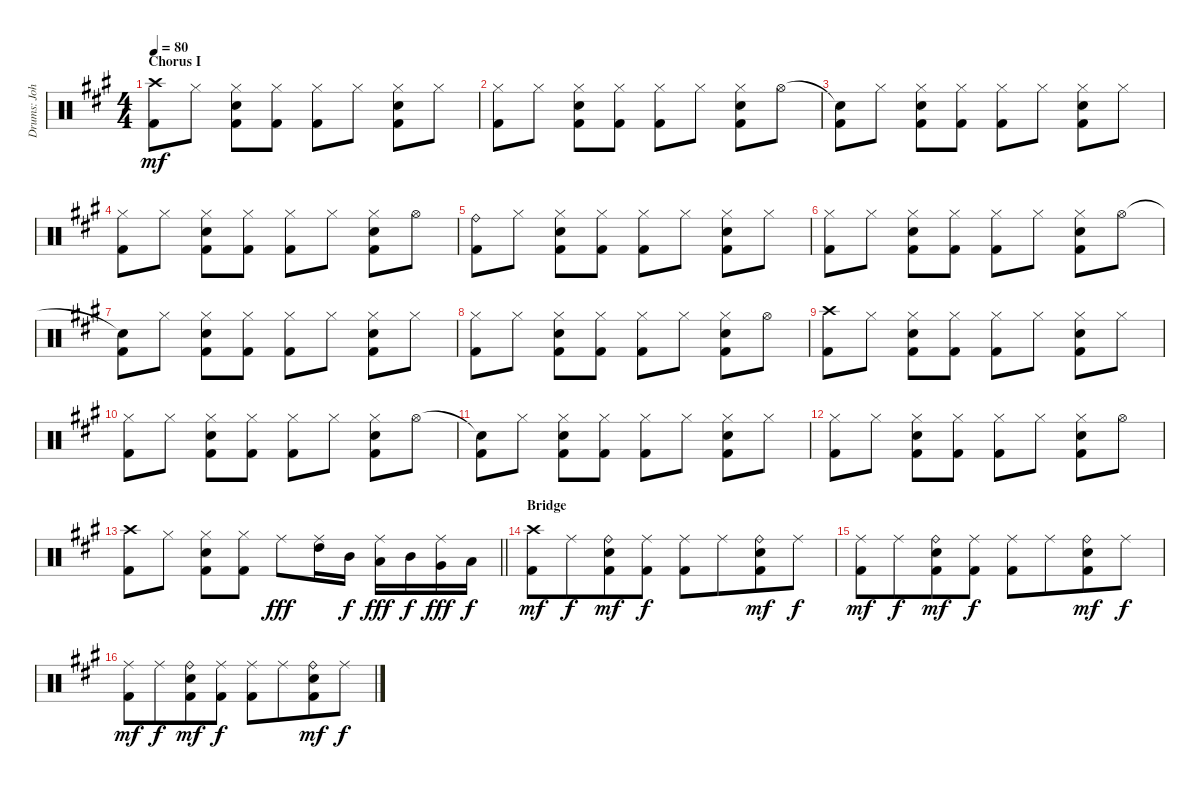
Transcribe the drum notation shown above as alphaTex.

\track ("Drums: John Wilcox" "Drums: Joh") {instrument percussion}
\staff {score}
\articulation defaults
\ts (4 4)
\section ("" "Chorus I")
\tempo 80
\clef neutral
\ks a
("Crash high (hit)" "Kick (hit) 2").8{dy mf} "Hi-Hat (closed)".8 ("Hi-Hat (closed)" "Snare (hit) 2" "Kick (hit) 2").8 ("Hi-Hat (closed)" "Kick (hit) 2").8 ("Hi-Hat (closed)" "Kick (hit) 2").8 "Hi-Hat (closed)".8 ("Hi-Hat (closed)" "Snare (hit) 2" "Kick (hit) 2").8 "Hi-Hat (closed)".8 |
("Hi-Hat (closed)" "Kick (hit) 2").8 "Hi-Hat (closed)".8 ("Hi-Hat (closed)" "Snare (hit) 2" "Kick (hit) 2").8 ("Hi-Hat (closed)" "Kick (hit) 2").8 ("Hi-Hat (closed)" "Kick (hit) 2").8 "Hi-Hat (closed)".8 ("Hi-Hat (closed)" "Snare (hit) 2" "Kick (hit) 2").8 "Hi-Hat (open)".8 |
("Snare (hit)"{t} "Kick (hit) 2").8 "Hi-Hat (closed)".8 ("Hi-Hat (closed)" "Snare (hit) 2" "Kick (hit) 2").8 ("Hi-Hat (closed)" "Kick (hit) 2").8 ("Hi-Hat (closed)" "Kick (hit) 2").8 "Hi-Hat (closed)".8 ("Hi-Hat (closed)" "Snare (hit) 2" "Kick (hit) 2").8 "Hi-Hat (closed)".8 |
("Hi-Hat (closed)" "Kick (hit) 2").8 "Hi-Hat (closed)".8 ("Hi-Hat (closed)" "Snare (hit) 2" "Kick (hit) 2").8 ("Hi-Hat (closed)" "Kick (hit) 2").8 ("Hi-Hat (closed)" "Kick (hit) 2").8 "Hi-Hat (closed)".8 ("Hi-Hat (closed)" "Snare (hit) 2" "Kick (hit) 2").8 "Hi-Hat (open)".8 |
("Ride (bell)" "Kick (hit) 2").8 "Hi-Hat (closed)".8 ("Hi-Hat (closed)" "Snare (hit) 2" "Kick (hit) 2").8 ("Hi-Hat (closed)" "Kick (hit) 2").8 ("Hi-Hat (closed)" "Kick (hit) 2").8 "Hi-Hat (closed)".8 ("Hi-Hat (closed)" "Snare (hit) 2" "Kick (hit) 2").8 "Hi-Hat (closed)".8 |
("Hi-Hat (closed)" "Kick (hit) 2").8 "Hi-Hat (closed)".8 ("Hi-Hat (closed)" "Snare (hit) 2" "Kick (hit) 2").8 ("Hi-Hat (closed)" "Kick (hit) 2").8 ("Hi-Hat (closed)" "Kick (hit) 2").8 "Hi-Hat (closed)".8 ("Hi-Hat (closed)" "Snare (hit) 2" "Kick (hit) 2").8 "Hi-Hat (open)".8 |
("Snare (hit)"{t} "Kick (hit) 2").8 "Hi-Hat (closed)".8 ("Hi-Hat (closed)" "Snare (hit) 2" "Kick (hit) 2").8 ("Hi-Hat (closed)" "Kick (hit) 2").8 ("Hi-Hat (closed)" "Kick (hit) 2").8 "Hi-Hat (closed)".8 ("Hi-Hat (closed)" "Snare (hit) 2" "Kick (hit) 2").8 "Hi-Hat (closed)".8 |
("Hi-Hat (closed)" "Kick (hit) 2").8 "Hi-Hat (closed)".8 ("Hi-Hat (closed)" "Snare (hit) 2" "Kick (hit) 2").8 ("Hi-Hat (closed)" "Kick (hit) 2").8 ("Hi-Hat (closed)" "Kick (hit) 2").8 "Hi-Hat (closed)".8 ("Hi-Hat (closed)" "Snare (hit) 2" "Kick (hit) 2").8 "Hi-Hat (open)".8 |
("Crash high (hit)" "Kick (hit) 2").8 "Hi-Hat (closed)".8 ("Hi-Hat (closed)" "Snare (hit) 2" "Kick (hit) 2").8 ("Hi-Hat (closed)" "Kick (hit) 2").8 ("Hi-Hat (closed)" "Kick (hit) 2").8 "Hi-Hat (closed)".8 ("Hi-Hat (closed)" "Snare (hit) 2" "Kick (hit) 2").8 "Hi-Hat (closed)".8 |
("Hi-Hat (closed)" "Kick (hit) 2").8 "Hi-Hat (closed)".8 ("Hi-Hat (closed)" "Snare (hit) 2" "Kick (hit) 2").8 ("Hi-Hat (closed)" "Kick (hit) 2").8 ("Hi-Hat (closed)" "Kick (hit) 2").8 "Hi-Hat (closed)".8 ("Hi-Hat (closed)" "Snare (hit) 2" "Kick (hit) 2").8 "Hi-Hat (open)".8 |
("Snare (hit)"{t} "Kick (hit) 2").8 "Hi-Hat (closed)".8 ("Hi-Hat (closed)" "Snare (hit) 2" "Kick (hit) 2").8 ("Hi-Hat (closed)" "Kick (hit) 2").8 ("Hi-Hat (closed)" "Kick (hit) 2").8 "Hi-Hat (closed)".8 ("Hi-Hat (closed)" "Snare (hit) 2" "Kick (hit) 2").8 "Hi-Hat (closed)".8 |
("Hi-Hat (closed)" "Kick (hit) 2").8 "Hi-Hat (closed)".8 ("Hi-Hat (closed)" "Snare (hit) 2" "Kick (hit) 2").8 ("Hi-Hat (closed)" "Kick (hit) 2").8 ("Hi-Hat (closed)" "Kick (hit) 2").8 "Hi-Hat (closed)".8 ("Hi-Hat (closed)" "Snare (hit) 2" "Kick (hit) 2").8 "Hi-Hat (open)".8 |
\barLineRight lightlight
("Crash high (hit)" "Kick (hit) 2").8 "Hi-Hat (closed)".8 ("Hi-Hat (closed)" "Snare (hit) 2" "Kick (hit) 2").8 ("Hi-Hat (closed)" "Kick (hit) 2").8 "Ride (middle)".8{dy fff} ("Ride (middle)" "High Tom (hit)").16 "Mid Tom (hit)".16{dy f} ("Ride (middle)" "Low Tom (hit)").16{dy fff} "Mid Tom (hit)".16{dy f} ("Ride (middle)" "Very Low Tom (hit)").16{dy fff} "Low Floor Tom (hit)".16{dy f} |
\section ("" "Bridge")
("Crash high (hit)" "Kick (hit) 2").8{dy mf} "Ride (middle)".8{dy f beam merge} ("Ride (bell)" "Snare (hit) 2" "Kick (hit) 2").8{dy mf} ("Ride (middle)" "Kick (hit) 2").8{dy f} ("Ride (middle)" "Kick (hit) 2").8 "Ride (middle)".8{beam merge} ("Ride (bell)" "Snare (hit) 2" "Kick (hit) 2").8{dy mf} "Ride (middle)".8{dy f} |
("Ride (middle)" "Kick (hit) 2").8{dy mf} "Ride (middle)".8{dy f beam merge} ("Ride (bell)" "Snare (hit) 2" "Kick (hit) 2").8{dy mf} ("Ride (middle)" "Kick (hit) 2").8{dy f} ("Ride (middle)" "Kick (hit) 2").8 "Ride (middle)".8{beam merge} ("Ride (bell)" "Snare (hit) 2" "Kick (hit) 2").8{dy mf} "Ride (middle)".8{dy f} |
("Ride (middle)" "Kick (hit) 2").8{dy mf} "Ride (middle)".8{dy f beam merge} ("Ride (bell)" "Snare (hit) 2" "Kick (hit) 2").8{dy mf} ("Ride (middle)" "Kick (hit) 2").8{dy f} ("Ride (middle)" "Kick (hit) 2").8 "Ride (middle)".8{beam merge} ("Ride (bell)" "Snare (hit) 2" "Kick (hit) 2").8{dy mf} "Ride (middle)".8{dy f}
